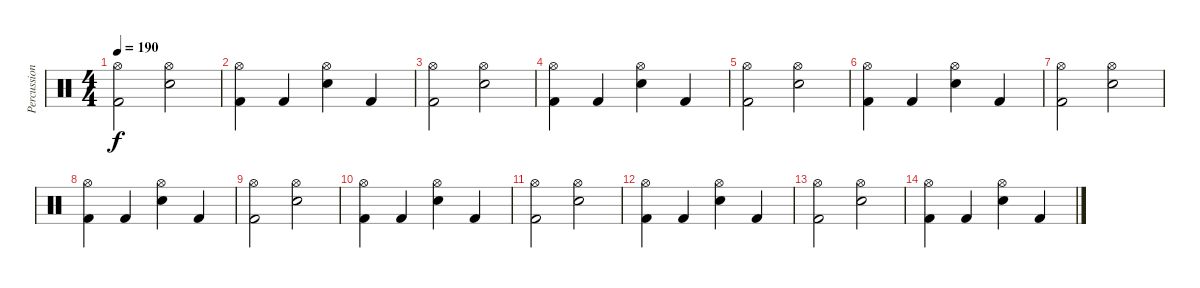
\track ("Percussion" "Percussion") {instrument percussion}
\staff {score}
\articulation defaults
\ts (4 4)
\tempo 190
\clef neutral
\ks c
("Hi-Hat (open)" "Kick (hit) 2").2{dy f} ("Hi-Hat (open)" "Snare (hit) 2").2 |
("Hi-Hat (open)" "Kick (hit) 2").4 "Kick (hit) 2".4 ("Hi-Hat (open)" "Snare (hit) 2").4 "Kick (hit) 2".4 |
("Hi-Hat (open)" "Kick (hit) 2").2 ("Hi-Hat (open)" "Snare (hit) 2").2 |
("Hi-Hat (open)" "Kick (hit) 2").4 "Kick (hit) 2".4 ("Hi-Hat (open)" "Snare (hit) 2").4 "Kick (hit) 2".4 |
("Hi-Hat (open)" "Kick (hit) 2").2 ("Hi-Hat (open)" "Snare (hit) 2").2 |
("Hi-Hat (open)" "Kick (hit) 2").4 "Kick (hit) 2".4 ("Hi-Hat (open)" "Snare (hit) 2").4 "Kick (hit) 2".4 |
("Hi-Hat (open)" "Kick (hit) 2").2 ("Hi-Hat (open)" "Snare (hit) 2").2 |
("Hi-Hat (open)" "Kick (hit) 2").4 "Kick (hit) 2".4 ("Hi-Hat (open)" "Snare (hit) 2").4 "Kick (hit) 2".4 |
("Hi-Hat (open)" "Kick (hit) 2").2 ("Hi-Hat (open)" "Snare (hit) 2").2 |
("Hi-Hat (open)" "Kick (hit) 2").4 "Kick (hit) 2".4 ("Hi-Hat (open)" "Snare (hit) 2").4 "Kick (hit) 2".4 |
("Hi-Hat (open)" "Kick (hit) 2").2 ("Hi-Hat (open)" "Snare (hit) 2").2 |
("Hi-Hat (open)" "Kick (hit) 2").4 "Kick (hit) 2".4 ("Hi-Hat (open)" "Snare (hit) 2").4 "Kick (hit) 2".4 |
("Hi-Hat (open)" "Kick (hit) 2").2 ("Hi-Hat (open)" "Snare (hit) 2").2 |
("Hi-Hat (open)" "Kick (hit) 2").4 "Kick (hit) 2".4 ("Hi-Hat (open)" "Snare (hit) 2").4 "Kick (hit) 2".4
